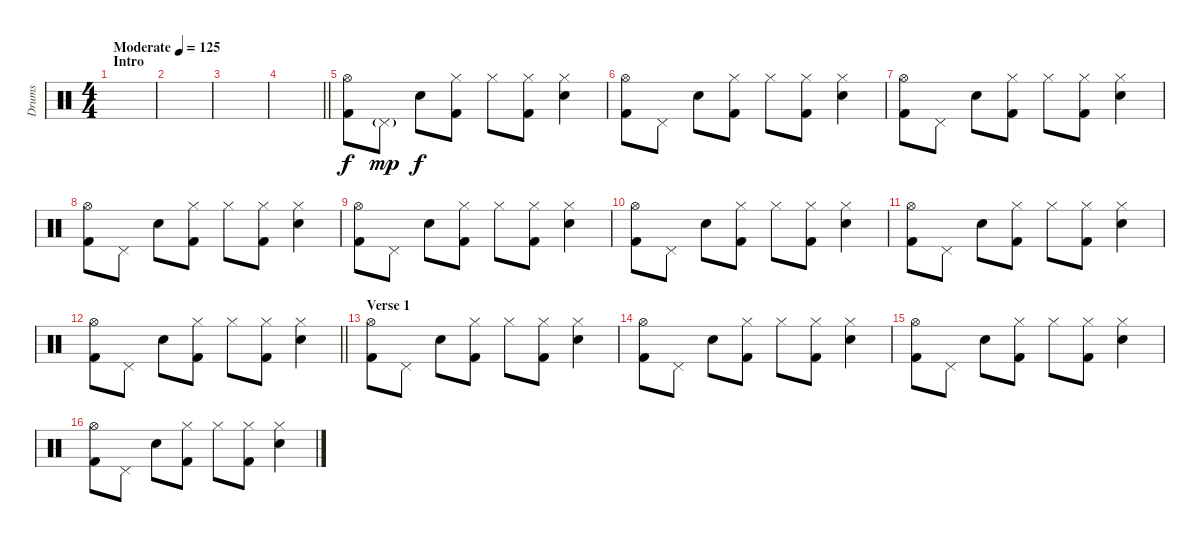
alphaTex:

\track ("Drums" "Drums") {instrument percussion}
\staff {score}
\articulation defaults
\ts (4 4)
\section ("" "Intro")
\tempo (125 "Moderate")
\clef neutral
\ks c
|
|
|
\barLineRight lightlight
|
\section ("" "")
("Hi-Hat (open)" "Kick (hit) 2").8 "Pedal Hi-Hat (hit)"{g}.8{dy mp} "Hand Clap (hit)".8{dy f} ("Hi-Hat (closed)" "Kick (hit) 2").8 "Hi-Hat (closed)".8 ("Hi-Hat (closed)" "Kick (hit) 2").8 ("Hi-Hat (closed)" "Hand Clap (hit)").4 |
("Hi-Hat (open)" "Kick (hit) 2").8 "Pedal Hi-Hat (hit)".8 "Hand Clap (hit)".8 ("Hi-Hat (closed)" "Kick (hit) 2").8 "Hi-Hat (closed)".8 ("Hi-Hat (closed)" "Kick (hit) 2").8 ("Hi-Hat (closed)" "Hand Clap (hit)").4 |
("Hi-Hat (open)" "Kick (hit) 2").8 "Pedal Hi-Hat (hit)".8 "Hand Clap (hit)".8 ("Hi-Hat (closed)" "Kick (hit) 2").8 "Hi-Hat (closed)".8 ("Hi-Hat (closed)" "Kick (hit) 2").8 ("Hi-Hat (closed)" "Hand Clap (hit)").4 |
("Hi-Hat (open)" "Kick (hit) 2").8 "Pedal Hi-Hat (hit)".8 "Hand Clap (hit)".8 ("Hi-Hat (closed)" "Kick (hit) 2").8 "Hi-Hat (closed)".8 ("Hi-Hat (closed)" "Kick (hit) 2").8 ("Hi-Hat (closed)" "Hand Clap (hit)").4 |
("Hi-Hat (open)" "Kick (hit) 2").8 "Pedal Hi-Hat (hit)".8 "Hand Clap (hit)".8 ("Hi-Hat (closed)" "Kick (hit) 2").8 "Hi-Hat (closed)".8 ("Hi-Hat (closed)" "Kick (hit) 2").8 ("Hi-Hat (closed)" "Hand Clap (hit)").4 |
("Hi-Hat (open)" "Kick (hit) 2").8 "Pedal Hi-Hat (hit)".8 "Hand Clap (hit)".8 ("Hi-Hat (closed)" "Kick (hit) 2").8 "Hi-Hat (closed)".8 ("Hi-Hat (closed)" "Kick (hit) 2").8 ("Hi-Hat (closed)" "Hand Clap (hit)").4 |
("Hi-Hat (open)" "Kick (hit) 2").8 "Pedal Hi-Hat (hit)".8 "Hand Clap (hit)".8 ("Hi-Hat (closed)" "Kick (hit) 2").8 "Hi-Hat (closed)".8 ("Hi-Hat (closed)" "Kick (hit) 2").8 ("Hi-Hat (closed)" "Hand Clap (hit)").4 |
\barLineRight lightlight
("Hi-Hat (open)" "Kick (hit) 2").8 "Pedal Hi-Hat (hit)".8 "Hand Clap (hit)".8 ("Hi-Hat (closed)" "Kick (hit) 2").8 "Hi-Hat (closed)".8 ("Hi-Hat (closed)" "Kick (hit) 2").8 ("Hi-Hat (closed)" "Hand Clap (hit)").4 |
\section ("" "Verse 1")
("Hi-Hat (open)" "Kick (hit) 2").8 "Pedal Hi-Hat (hit)".8 "Hand Clap (hit)".8 ("Hi-Hat (closed)" "Kick (hit) 2").8 "Hi-Hat (closed)".8 ("Hi-Hat (closed)" "Kick (hit) 2").8 ("Hi-Hat (closed)" "Hand Clap (hit)").4 |
("Hi-Hat (open)" "Kick (hit) 2").8 "Pedal Hi-Hat (hit)".8 "Hand Clap (hit)".8 ("Hi-Hat (closed)" "Kick (hit) 2").8 "Hi-Hat (closed)".8 ("Hi-Hat (closed)" "Kick (hit) 2").8 ("Hi-Hat (closed)" "Hand Clap (hit)").4 |
("Hi-Hat (open)" "Kick (hit) 2").8 "Pedal Hi-Hat (hit)".8 "Hand Clap (hit)".8 ("Hi-Hat (closed)" "Kick (hit) 2").8 "Hi-Hat (closed)".8 ("Hi-Hat (closed)" "Kick (hit) 2").8 ("Hi-Hat (closed)" "Hand Clap (hit)").4 |
("Hi-Hat (open)" "Kick (hit) 2").8 "Pedal Hi-Hat (hit)".8 "Hand Clap (hit)".8 ("Hi-Hat (closed)" "Kick (hit) 2").8 "Hi-Hat (closed)".8 ("Hi-Hat (closed)" "Kick (hit) 2").8 ("Hi-Hat (closed)" "Hand Clap (hit)").4
